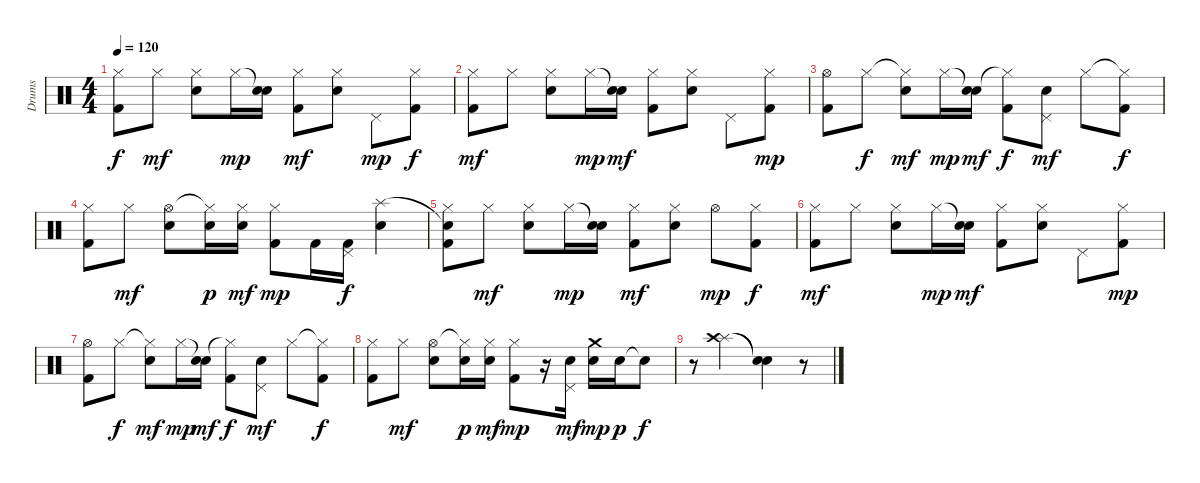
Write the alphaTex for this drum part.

\track ("Drums" "Drums") {instrument percussion}
\staff {score}
\articulation defaults
\ts (4 4)
\tempo 120
\clef neutral
\ks c
("Hi-Hat (closed)" "Kick (hit) 2").8{dy f} "Hi-Hat (closed)".8{dy mf} ("Hi-Hat (closed)" "Snare (hit) 2").8 "Hi-Hat (closed)".16{dy mp} ("Snare (hit)"{t} "Snare (hit) 2").16 ("Hi-Hat (closed)" "Kick (hit) 2").8{dy mf} ("Hi-Hat (closed)" "Snare (hit) 2").8 "Pedal Hi-Hat (hit)".8{dy mp} ("Hi-Hat (closed)" "Kick (hit) 2").8{dy f} |
("Hi-Hat (closed)" "Kick (hit) 2").8{dy mf} "Hi-Hat (closed)".8 ("Hi-Hat (closed)" "Snare (hit) 2").8 "Hi-Hat (closed)".16{dy mp} ("Snare (hit)"{t} "Snare (hit) 2").16{dy mf} ("Hi-Hat (closed)" "Kick (hit) 2").8 ("Hi-Hat (closed)" "Snare (hit) 2").8 "Pedal Hi-Hat (hit)".8 ("Hi-Hat (closed)" "Kick (hit) 2").8{dy mp} |
("Hi-Hat (open)" "Kick (hit) 2").8 "Hi-Hat (closed)".8{dy f} ("Hi-Hat (closed)"{t} "Snare (hit) 2").8{dy mf} "Hi-Hat (closed)".16{dy mp} ("Snare (hit)"{t} "Snare (hit) 2").16{dy mf} ("Hi-Hat (closed)"{t} "Kick (hit) 2").8{dy f} ("Pedal Hi-Hat (hit)" "Snare (hit) 2").8{dy mf} "Hi-Hat (closed)".8 ("Hi-Hat (closed)"{t} "Kick (hit) 2").8{dy f} |
("Hi-Hat (closed)" "Kick (hit) 2").8 "Hi-Hat (closed)".8{dy mf} ("Hi-Hat (open)" "Snare (hit) 2").8 ("Hi-Hat (closed)"{t} "Snare (hit) 2").16{dy p} ("Hi-Hat (closed)" "Snare (hit) 2").16{dy mf} ("Hi-Hat (closed)" "Kick (hit) 2").8{dy mp} "Kick (hit) 2".16 ("Pedal Hi-Hat (hit)" "Kick (hit) 2").16{dy f} ("Splash (hit)" "Snare (hit) 2").4 |
("Snare (hit)"{t} "Hi-Hat (closed)" "Kick (hit) 2").8 "Hi-Hat (closed)".8{dy mf} ("Hi-Hat (closed)" "Snare (hit) 2").8 "Hi-Hat (closed)".16{dy mp} ("Snare (hit)"{t} "Snare (hit) 2").16 ("Hi-Hat (closed)" "Kick (hit) 2").8{dy mf} ("Hi-Hat (closed)" "Snare (hit) 2").8 "Hi-Hat (open)".8{dy mp} ("Hi-Hat (closed)" "Kick (hit) 2").8{dy f} |
("Hi-Hat (closed)" "Kick (hit) 2").8{dy mf} "Hi-Hat (closed)".8 ("Hi-Hat (closed)" "Snare (hit) 2").8 "Hi-Hat (closed)".16{dy mp} ("Snare (hit)"{t} "Snare (hit) 2").16{dy mf} ("Hi-Hat (closed)" "Kick (hit) 2").8 ("Hi-Hat (closed)" "Snare (hit) 2").8 "Pedal Hi-Hat (hit)".8 ("Hi-Hat (closed)" "Kick (hit) 2").8{dy mp} |
("Hi-Hat (open)" "Kick (hit) 2").8 "Hi-Hat (closed)".8{dy f} ("Hi-Hat (closed)"{t} "Snare (hit) 2").8{dy mf} "Hi-Hat (closed)".16{dy mp} ("Snare (hit)"{t} "Snare (hit) 2").16{dy mf} ("Hi-Hat (closed)"{t} "Kick (hit) 2").8{dy f} ("Pedal Hi-Hat (hit)" "Snare (hit) 2").8{dy mf} "Hi-Hat (closed)".8 ("Hi-Hat (closed)"{t} "Kick (hit) 2").8{dy f} |
("Hi-Hat (closed)" "Kick (hit) 2").8 "Hi-Hat (closed)".8{dy mf} ("Hi-Hat (open)" "Snare (hit) 2").8 ("Hi-Hat (closed)"{t} "Snare (hit) 2").16{dy p} ("Hi-Hat (closed)" "Snare (hit) 2").16{dy mf} ("Hi-Hat (closed)" "Kick (hit) 2").8{dy mp} r.16 ("Pedal Hi-Hat (hit)" "Snare (hit) 2").16{dy mf} ("Crash medium (hit)" "Snare (hit) 2").16{dy mp} "Snare (hit) 2".16{dy p} "Snare (hit)"{t}.8{dy f} |
r.8 ("Splash (hit)" "Crash high (hit)").2 ("Snare (hit)"{t} "Snare (hit)"{t}).4 r.8
